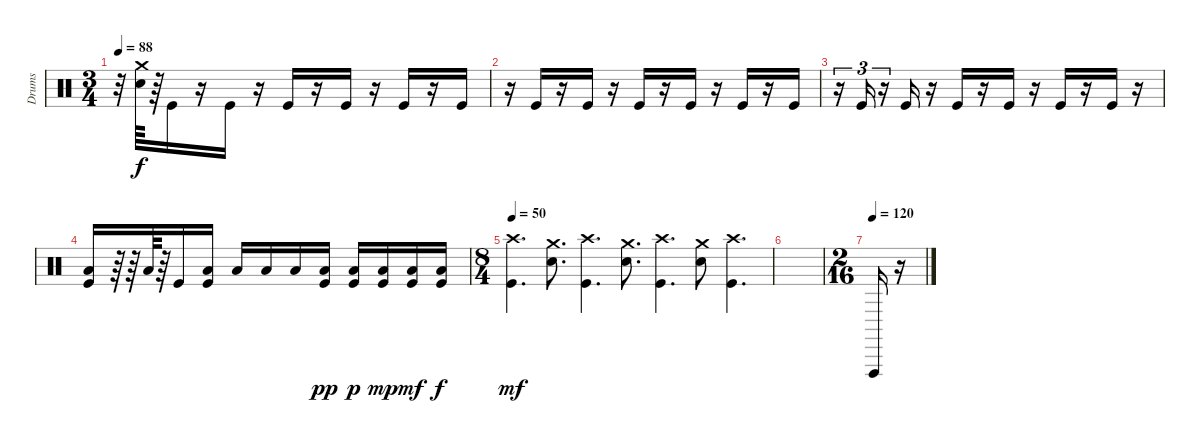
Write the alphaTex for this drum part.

\track ("Drums" "Drums") {instrument percussion}
\staff {score}
\articulation defaults
\ts (3 4)
\tempo 88
\clef neutral
\ks c
r.32{dy f} ("Crash medium (hit)" "Electric Snare (hit)").64 r.64 "Kick (hit)".16 r.16 "Kick (hit)".16 r.16 "Kick (hit)".16 r.16 "Kick (hit)".16 r.16 "Kick (hit)".16 r.16 "Kick (hit)".16 |
r.16 "Kick (hit)".16 r.16 "Kick (hit)".16 r.16 "Kick (hit)".16 r.16 "Kick (hit)".16 r.16 "Kick (hit)".16 r.16 "Kick (hit)".16 |
r.16{tu (3 2)} "Kick (hit)".16{tu (3 2)} r.16{tu (3 2)} "Kick (hit)".16 r.16 "Kick (hit)".16 r.16 "Kick (hit)".16 r.16 "Kick (hit)".16 r.16 "Kick (hit)".16 r.16 |
("Low Floor Tom (hit)" "Kick (hit)").16 r.64 r.64 "Low Floor Tom (hit)".64 r.64 "Kick (hit)".16 ("Low Floor Tom (hit)" "Kick (hit)").16 "Low Floor Tom (hit)".16 "Low Floor Tom (hit)".16 "Low Floor Tom (hit)".16 ("Low Floor Tom (hit)" "Kick (hit)").16{dy pp} ("Low Floor Tom (hit)" "Kick (hit)").16{dy p} ("Low Floor Tom (hit)" "Kick (hit)").16{dy mp} ("Low Floor Tom (hit)" "Kick (hit)").16{dy mf} ("Low Floor Tom (hit)" "Kick (hit)").16{dy f} |
\ts (8 4)
\tempo 75
\tempo 50
("Crash high (hit)" "Kick (hit)").4{d dy mf} ("Crash medium (hit)" "Electric Snare (hit)").8{d} ("Crash high (hit)" "Kick (hit)").4{d} ("Crash medium (hit)" "Electric Snare (hit)").8{d} ("Crash high (hit)" "Kick (hit)").4{d} ("Crash medium (hit)" "Electric Snare (hit)").8 ("Crash high (hit)" "Kick (hit)").4{d} |
|
\ts (2 16)
\tempo (120)
"Vibraslap (hit)".16 r.16
